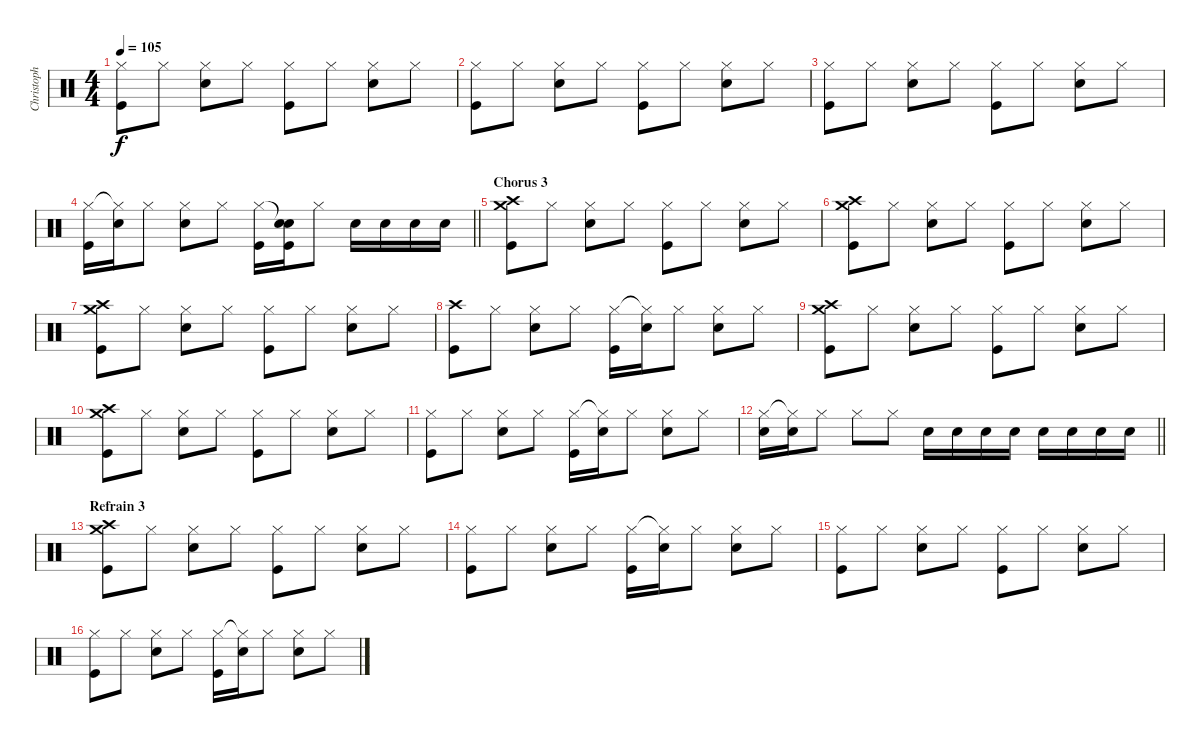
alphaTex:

\track ("Christoph Schneider" "Christoph ") {instrument percussion}
\staff {score}
\articulation defaults
\ts (4 4)
\tempo 105
\clef neutral
\ks c
("Hi-Hat (closed)" "Kick (hit)").8{dy f} "Hi-Hat (closed)".8 ("Hi-Hat (closed)" "Snare (hit) 2").8 "Hi-Hat (closed)".8 ("Hi-Hat (closed)" "Kick (hit)").8 "Hi-Hat (closed)".8 ("Hi-Hat (closed)" "Snare (hit) 2").8 "Hi-Hat (closed)".8 |
("Hi-Hat (closed)" "Kick (hit)").8 "Hi-Hat (closed)".8 ("Hi-Hat (closed)" "Snare (hit) 2").8 "Hi-Hat (closed)".8 ("Hi-Hat (closed)" "Kick (hit)").8 "Hi-Hat (closed)".8 ("Hi-Hat (closed)" "Snare (hit) 2").8 "Hi-Hat (closed)".8 |
("Hi-Hat (closed)" "Kick (hit)").8 "Hi-Hat (closed)".8 ("Hi-Hat (closed)" "Snare (hit) 2").8 "Hi-Hat (closed)".8 ("Hi-Hat (closed)" "Kick (hit)").8 "Hi-Hat (closed)".8 ("Hi-Hat (closed)" "Snare (hit) 2").8 "Hi-Hat (closed)".8 |
\barLineRight lightlight
("Hi-Hat (closed)" "Kick (hit)").16 ("Hi-Hat (closed)"{t} "Snare (hit) 2").16 "Hi-Hat (closed)".8 ("Hi-Hat (closed)" "Snare (hit) 2").8 "Hi-Hat (closed)".8 ("Hi-Hat (closed)" "Kick (hit)").16 ("Snare (hit)"{t} "Snare (hit) 2" "Kick (hit)").16 "Hi-Hat (closed)".8 "Snare (hit) 2".16 "Snare (hit) 2".16 "Snare (hit) 2".16 "Snare (hit) 2".16 |
\section ("" "Chorus 3")
("Crash medium (hit)" "Crash high (hit)" "Kick (hit)").8 "Hi-Hat (closed)".8 ("Hi-Hat (closed)" "Snare (hit) 2").8 "Hi-Hat (closed)".8 ("Hi-Hat (closed)" "Kick (hit)").8 "Hi-Hat (closed)".8 ("Hi-Hat (closed)" "Snare (hit) 2").8 "Hi-Hat (closed)".8 |
("Crash medium (hit)" "Crash high (hit)" "Kick (hit)").8 "Hi-Hat (closed)".8 ("Hi-Hat (closed)" "Snare (hit) 2").8 "Hi-Hat (closed)".8 ("Hi-Hat (closed)" "Kick (hit)").8 "Hi-Hat (closed)".8 ("Hi-Hat (closed)" "Snare (hit) 2").8 "Hi-Hat (closed)".8 |
("Crash medium (hit)" "Crash high (hit)" "Kick (hit)").8 "Hi-Hat (closed)".8 ("Hi-Hat (closed)" "Snare (hit) 2").8 "Hi-Hat (closed)".8 ("Hi-Hat (closed)" "Kick (hit)").8 "Hi-Hat (closed)".8 ("Hi-Hat (closed)" "Snare (hit) 2").8 "Hi-Hat (closed)".8 |
("Crash high (hit)" "Kick (hit)").8 "Hi-Hat (closed)".8 ("Hi-Hat (closed)" "Snare (hit) 2").8 "Hi-Hat (closed)".8 ("Hi-Hat (closed)" "Kick (hit)").16 ("Hi-Hat (closed)"{t} "Snare (hit) 2").16 "Hi-Hat (closed)".8 ("Hi-Hat (closed)" "Snare (hit) 2").8 "Hi-Hat (closed)".8 |
("Crash medium (hit)" "Crash high (hit)" "Kick (hit)").8 "Hi-Hat (closed)".8 ("Hi-Hat (closed)" "Snare (hit) 2").8 "Hi-Hat (closed)".8 ("Hi-Hat (closed)" "Kick (hit)").8 "Hi-Hat (closed)".8 ("Hi-Hat (closed)" "Snare (hit) 2").8 "Hi-Hat (closed)".8 |
("Crash medium (hit)" "Crash high (hit)" "Kick (hit)").8 "Hi-Hat (closed)".8 ("Hi-Hat (closed)" "Snare (hit) 2").8 "Hi-Hat (closed)".8 ("Hi-Hat (closed)" "Kick (hit)").8 "Hi-Hat (closed)".8 ("Hi-Hat (closed)" "Snare (hit) 2").8 "Hi-Hat (closed)".8 |
("Hi-Hat (closed)" "Kick (hit)").8 "Hi-Hat (closed)".8 ("Hi-Hat (closed)" "Snare (hit) 2").8 "Hi-Hat (closed)".8 ("Hi-Hat (closed)" "Kick (hit)").16 ("Hi-Hat (closed)"{t} "Snare (hit) 2").16 "Hi-Hat (closed)".8 ("Hi-Hat (closed)" "Snare (hit) 2").8 "Hi-Hat (closed)".8 |
\barLineRight lightlight
("Hi-Hat (closed)" "Snare (hit) 2").16 ("Hi-Hat (closed)"{t} "Snare (hit) 2").16 "Hi-Hat (closed)".8 "Hi-Hat (closed)".8 "Hi-Hat (closed)".8 "Snare (hit) 2".16 "Snare (hit) 2".16 "Snare (hit) 2".16 "Snare (hit) 2".16 "Snare (hit) 2".16 "Snare (hit) 2".16 "Snare (hit) 2".16 "Snare (hit) 2".16 |
\section ("" "Refrain 3")
("Crash medium (hit)" "Crash high (hit)" "Kick (hit)").8 "Hi-Hat (closed)".8 ("Hi-Hat (closed)" "Snare (hit) 2").8 "Hi-Hat (closed)".8 ("Hi-Hat (closed)" "Kick (hit)").8 "Hi-Hat (closed)".8 ("Hi-Hat (closed)" "Snare (hit) 2").8 "Hi-Hat (closed)".8 |
("Hi-Hat (closed)" "Kick (hit)").8 "Hi-Hat (closed)".8 ("Hi-Hat (closed)" "Snare (hit) 2").8 "Hi-Hat (closed)".8 ("Hi-Hat (closed)" "Kick (hit)").16 ("Hi-Hat (closed)"{t} "Snare (hit) 2").16 "Hi-Hat (closed)".8 ("Hi-Hat (closed)" "Snare (hit) 2").8 "Hi-Hat (closed)".8 |
("Hi-Hat (closed)" "Kick (hit)").8 "Hi-Hat (closed)".8 ("Hi-Hat (closed)" "Snare (hit) 2").8 "Hi-Hat (closed)".8 ("Hi-Hat (closed)" "Kick (hit)").8 "Hi-Hat (closed)".8 ("Hi-Hat (closed)" "Snare (hit) 2").8 "Hi-Hat (closed)".8 |
("Hi-Hat (closed)" "Kick (hit)").8 "Hi-Hat (closed)".8 ("Hi-Hat (closed)" "Snare (hit) 2").8 "Hi-Hat (closed)".8 ("Hi-Hat (closed)" "Kick (hit)").16 ("Hi-Hat (closed)"{t} "Snare (hit) 2").16 "Hi-Hat (closed)".8 ("Hi-Hat (closed)" "Snare (hit) 2").8 "Hi-Hat (closed)".8
